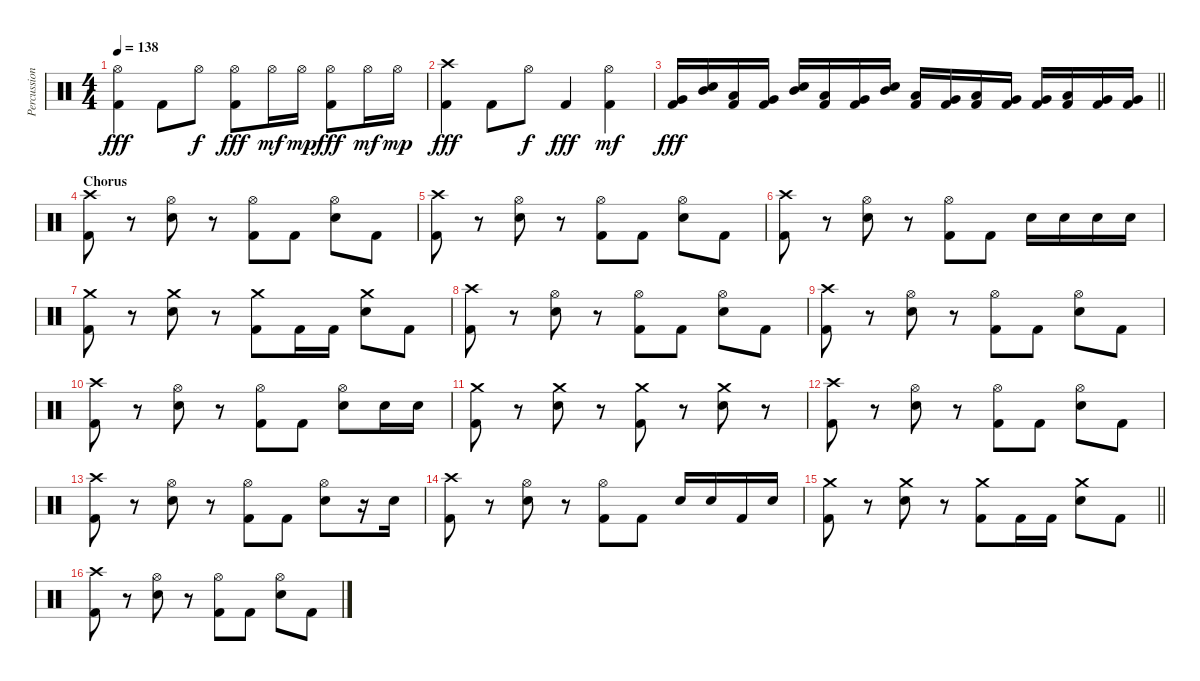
\track ("Percussion" "Percussion") {instrument percussion}
\staff {score}
\articulation defaults
\ts (4 4)
\tempo 138
\clef neutral
\ks c
("Kick (hit) 2" "Hi-Hat (open)").4{dy fff} "Kick (hit) 2".8 "Hi-Hat (open)".8{dy f} ("Kick (hit) 2" "Hi-Hat (open)").8{dy fff} "Hi-Hat (open)".16{dy mf} "Hi-Hat (open)".16{dy mp} ("Kick (hit) 2" "Hi-Hat (open)").8{dy fff} "Hi-Hat (open)".16{dy mf} "Hi-Hat (open)".16{dy mp} |
("Kick (hit) 2" "Crash high (hit)").4{dy fff} "Kick (hit) 2".8 "Hi-Hat (open)".8{dy f} "Kick (hit) 2".4{dy fff} ("Kick (hit) 2" "Hi-Hat (open)").4{dy mf} |
\barLineRight lightlight
("Kick (hit) 2" "Very Low Tom (hit)").16{dy fff} ("Snare (hit) 2" "Mid Tom (hit)").16 ("Kick (hit) 2" "Low Tom (hit)").16 ("Kick (hit) 2" "Very Low Tom (hit)").16 ("Snare (hit) 2" "Mid Tom (hit)").16 ("Kick (hit) 2" "Low Tom (hit)").16 ("Kick (hit) 2" "Very Low Tom (hit)").16 ("Snare (hit) 2" "Mid Tom (hit)").16 ("Kick (hit) 2" "Low Tom (hit)").16 ("Kick (hit) 2" "Very Low Tom (hit)").16 ("Kick (hit) 2" "Low Tom (hit)").16 ("Kick (hit) 2" "Very Low Tom (hit)").16 ("Kick (hit) 2" "Very Low Tom (hit)").16 ("Kick (hit) 2" "Low Tom (hit)").16 ("Kick (hit) 2" "Very Low Tom (hit)").16 ("Kick (hit) 2" "Very Low Tom (hit)").16 |
\section ("" "Chorus")
("Kick (hit) 2" "Crash high (hit)").8 r.8 ("Snare (hit) 2" "Hi-Hat (open)").8 r.8 ("Kick (hit) 2" "Hi-Hat (open)").8 "Kick (hit) 2".8 ("Snare (hit) 2" "Hi-Hat (open)").8 "Kick (hit) 2".8 |
("Kick (hit) 2" "Crash high (hit)").8 r.8 ("Snare (hit) 2" "Hi-Hat (open)").8 r.8 ("Kick (hit) 2" "Hi-Hat (open)").8 "Kick (hit) 2".8 ("Snare (hit) 2" "Hi-Hat (open)").8 "Kick (hit) 2".8 |
("Kick (hit) 2" "Crash high (hit)").8 r.8 ("Snare (hit) 2" "Hi-Hat (open)").8 r.8 ("Kick (hit) 2" "Hi-Hat (open)").8 "Kick (hit) 2".8 "Snare (hit) 2".16 "Snare (hit) 2".16 "Snare (hit) 2".16 "Snare (hit) 2".16 |
("Kick (hit) 2" "Crash medium (hit)").8 r.8 ("Snare (hit) 2" "Crash medium (hit)").8 r.8 ("Kick (hit) 2" "Crash medium (hit)").8 "Kick (hit) 2".16 "Kick (hit) 2".16 ("Snare (hit) 2" "Crash medium (hit)").8 "Kick (hit) 2".8 |
("Kick (hit) 2" "Crash high (hit)").8 r.8 ("Snare (hit) 2" "Hi-Hat (open)").8 r.8 ("Kick (hit) 2" "Hi-Hat (open)").8 "Kick (hit) 2".8 ("Snare (hit) 2" "Hi-Hat (open)").8 "Kick (hit) 2".8 |
("Kick (hit) 2" "Crash high (hit)").8 r.8 ("Snare (hit) 2" "Hi-Hat (open)").8 r.8 ("Kick (hit) 2" "Hi-Hat (open)").8 "Kick (hit) 2".8 ("Snare (hit) 2" "Hi-Hat (open)").8 "Kick (hit) 2".8 |
("Kick (hit) 2" "Crash high (hit)").8 r.8 ("Snare (hit) 2" "Hi-Hat (open)").8 r.8 ("Kick (hit) 2" "Hi-Hat (open)").8 "Kick (hit) 2".8 ("Snare (hit) 2" "Hi-Hat (open)").8 "Snare (hit) 2".16 "Snare (hit) 2".16 |
("Kick (hit) 2" "Crash medium (hit)").8 r.8 ("Snare (hit) 2" "Crash medium (hit)").8 r.8 ("Kick (hit) 2" "Crash medium (hit)").8 r.8 ("Snare (hit) 2" "Crash medium (hit)").8 r.8 |
("Kick (hit) 2" "Crash high (hit)").8 r.8 ("Snare (hit) 2" "Hi-Hat (open)").8 r.8 ("Kick (hit) 2" "Hi-Hat (open)").8 "Kick (hit) 2".8 ("Snare (hit) 2" "Hi-Hat (open)").8 "Kick (hit) 2".8 |
("Kick (hit) 2" "Crash high (hit)").8 r.8 ("Snare (hit) 2" "Hi-Hat (open)").8 r.8 ("Kick (hit) 2" "Hi-Hat (open)").8 "Kick (hit) 2".8 ("Snare (hit) 2" "Hi-Hat (open)").8 r.16 "Snare (hit) 2".16 |
("Kick (hit) 2" "Crash high (hit)").8 r.8 ("Snare (hit) 2" "Hi-Hat (open)").8 r.8 ("Kick (hit) 2" "Hi-Hat (open)").8 "Kick (hit) 2".8 "Snare (hit) 2".16 "Snare (hit) 2".16 "Kick (hit) 2".16 "Snare (hit) 2".16 |
\barLineRight lightlight
("Kick (hit) 2" "Crash medium (hit)").8 r.8 ("Snare (hit) 2" "Crash medium (hit)").8 r.8 ("Kick (hit) 2" "Crash medium (hit)").8 "Kick (hit) 2".16 "Kick (hit) 2".16 ("Snare (hit) 2" "Crash medium (hit)").8 "Kick (hit) 2".8 |
("Kick (hit) 2" "Crash high (hit)").8 r.8 ("Snare (hit) 2" "Hi-Hat (open)").8 r.8 ("Kick (hit) 2" "Hi-Hat (open)").8 "Kick (hit) 2".8 ("Snare (hit) 2" "Hi-Hat (open)").8 "Kick (hit) 2".8
